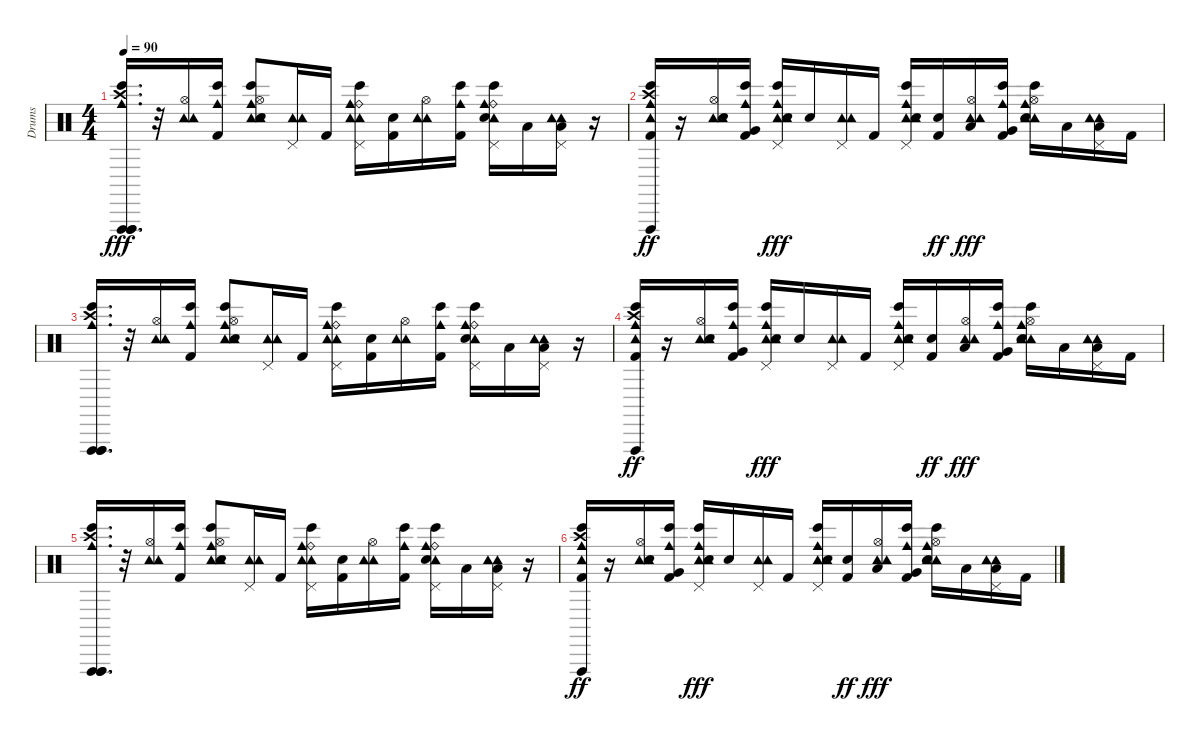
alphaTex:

\track ("Drums" "Drums") {instrument percussion}
\staff {score}
\articulation defaults
\ts (4 4)
\tempo 90
\clef neutral
\ks c
("Vibraslap (hit)" "Vibraslap (hit)" "Vibraslap (hit)" "Cowbell medium (hit)" "Bongo High (hit)" "Crash high (hit)").16{d dy fff} r.32 ("Tambourine (hit)" "Hi-Hat (open)" "Tambourine (hit)").16 ("Kick (hit) 2" "Bongo High (hit)" "Cowbell medium (hit)").16 ("Tambourine (hit)" "Hi-Hat (open)" "Cowbell medium (hit)" "Electric Snare (hit)" "Bongo High (hit)" "Tambourine (hit)").8 ("Tambourine (hit)" "Pedal Hi-Hat (hit)" "Tambourine (hit)").16 "Kick (hit) 2".16 ("Tambourine (hit)" "Pedal Hi-Hat (hit)" "Ride (bell)" "Cowbell medium (hit)" "Bongo High (hit)" "Tambourine (hit)").16 ("Kick (hit) 2" "Electric Snare (hit)").16 ("Tambourine (hit)" "Tambourine (hit)" "Hi-Hat (open)").16 ("Cowbell medium (hit)" "Kick (hit) 2" "Bongo High (hit)").16 ("Tambourine (hit)" "Pedal Hi-Hat (hit)" "Ride (bell)" "Cowbell medium (hit)" "Electric Snare (hit)" "Bongo High (hit)").16 "Low Tom (hit)".16 ("Tambourine (hit)" "Pedal Hi-Hat (hit)" "Tambourine (hit)" "Low Floor Tom (hit)").16 r.16 |
("Tambourine (hit)" "Vibraslap (hit)" "Cowbell medium (hit)" "Bongo High (hit)" "Kick (hit) 2" "Crash high (hit)").16{dy ff} r.16 ("Tambourine (hit)" "Hi-Hat (open)" "Tambourine (hit)" "Electric Snare (hit)").16 ("Kick (hit) 2" "Bongo High (hit)" "Cowbell medium (hit)" "Very Low Tom (hit)").16 ("Tambourine (hit)" "Pedal Hi-Hat (hit)" "Cowbell medium (hit)" "Electric Snare (hit)" "Bongo High (hit)" "Tambourine (hit)").16{dy fff} "Electric Snare (hit)".16 ("Tambourine (hit)" "Pedal Hi-Hat (hit)" "Tambourine (hit)").16 "Kick (hit) 2".16 ("Tambourine (hit)" "Pedal Hi-Hat (hit)" "Cowbell medium (hit)" "Bongo High (hit)" "Tambourine (hit)" "Electric Snare (hit)").16 ("Kick (hit) 2" "Electric Snare (hit)").16{dy ff} ("Tambourine (hit)" "Low Tom (hit)" "Tambourine (hit)" "Hi-Hat (open)").16{dy fff} ("Cowbell medium (hit)" "Kick (hit) 2" "Bongo High (hit)" "Very Low Tom (hit)").16 ("Tambourine (hit)" "Hi-Hat (open)" "Cowbell medium (hit)" "Electric Snare (hit)" "Bongo High (hit)" "Tambourine (hit)").16 "Low Tom (hit)".16 ("Tambourine (hit)" "Pedal Hi-Hat (hit)" "Tambourine (hit)" "Low Floor Tom (hit)").16 "Kick (hit) 2".16 |
("Vibraslap (hit)" "Vibraslap (hit)" "Vibraslap (hit)" "Cowbell medium (hit)" "Bongo High (hit)" "Crash high (hit)").16{d volume 0} r.32 ("Tambourine (hit)" "Hi-Hat (open)" "Tambourine (hit)").16 ("Kick (hit) 2" "Bongo High (hit)" "Cowbell medium (hit)").16 ("Tambourine (hit)" "Hi-Hat (open)" "Cowbell medium (hit)" "Electric Snare (hit)" "Bongo High (hit)" "Tambourine (hit)").8 ("Tambourine (hit)" "Pedal Hi-Hat (hit)" "Tambourine (hit)").16 "Kick (hit) 2".16 ("Tambourine (hit)" "Pedal Hi-Hat (hit)" "Ride (bell)" "Cowbell medium (hit)" "Bongo High (hit)" "Tambourine (hit)").16 ("Kick (hit) 2" "Electric Snare (hit)").16 ("Tambourine (hit)" "Tambourine (hit)" "Hi-Hat (open)").16 ("Cowbell medium (hit)" "Kick (hit) 2" "Bongo High (hit)").16 ("Tambourine (hit)" "Pedal Hi-Hat (hit)" "Ride (bell)" "Cowbell medium (hit)" "Electric Snare (hit)" "Bongo High (hit)").16 "Low Tom (hit)".16 ("Tambourine (hit)" "Pedal Hi-Hat (hit)" "Tambourine (hit)" "Low Floor Tom (hit)").16 r.16 |
("Tambourine (hit)" "Vibraslap (hit)" "Cowbell medium (hit)" "Bongo High (hit)" "Kick (hit) 2" "Crash high (hit)").16{dy ff} r.16 ("Tambourine (hit)" "Hi-Hat (open)" "Tambourine (hit)" "Electric Snare (hit)").16 ("Kick (hit) 2" "Bongo High (hit)" "Cowbell medium (hit)" "Very Low Tom (hit)").16 ("Tambourine (hit)" "Pedal Hi-Hat (hit)" "Cowbell medium (hit)" "Electric Snare (hit)" "Bongo High (hit)" "Tambourine (hit)").16{dy fff} "Electric Snare (hit)".16 ("Tambourine (hit)" "Pedal Hi-Hat (hit)" "Tambourine (hit)").16 "Kick (hit) 2".16 ("Tambourine (hit)" "Pedal Hi-Hat (hit)" "Cowbell medium (hit)" "Bongo High (hit)" "Tambourine (hit)" "Electric Snare (hit)").16 ("Kick (hit) 2" "Electric Snare (hit)").16{dy ff} ("Tambourine (hit)" "Low Tom (hit)" "Tambourine (hit)" "Hi-Hat (open)").16{dy fff} ("Cowbell medium (hit)" "Kick (hit) 2" "Bongo High (hit)" "Very Low Tom (hit)").16 ("Tambourine (hit)" "Hi-Hat (open)" "Cowbell medium (hit)" "Electric Snare (hit)" "Bongo High (hit)" "Tambourine (hit)").16 "Low Tom (hit)".16 ("Tambourine (hit)" "Pedal Hi-Hat (hit)" "Tambourine (hit)" "Low Floor Tom (hit)").16 "Kick (hit) 2".16 |
("Vibraslap (hit)" "Vibraslap (hit)" "Vibraslap (hit)" "Cowbell medium (hit)" "Bongo High (hit)" "Crash high (hit)").16{d} r.32 ("Tambourine (hit)" "Hi-Hat (open)" "Tambourine (hit)").16 ("Kick (hit) 2" "Bongo High (hit)" "Cowbell medium (hit)").16 ("Tambourine (hit)" "Hi-Hat (open)" "Cowbell medium (hit)" "Electric Snare (hit)" "Bongo High (hit)" "Tambourine (hit)").8 ("Tambourine (hit)" "Pedal Hi-Hat (hit)" "Tambourine (hit)").16 "Kick (hit) 2".16 ("Tambourine (hit)" "Pedal Hi-Hat (hit)" "Ride (bell)" "Cowbell medium (hit)" "Bongo High (hit)" "Tambourine (hit)").16 ("Kick (hit) 2" "Electric Snare (hit)").16 ("Tambourine (hit)" "Tambourine (hit)" "Hi-Hat (open)").16 ("Cowbell medium (hit)" "Kick (hit) 2" "Bongo High (hit)").16 ("Tambourine (hit)" "Pedal Hi-Hat (hit)" "Ride (bell)" "Cowbell medium (hit)" "Electric Snare (hit)" "Bongo High (hit)").16 "Low Tom (hit)".16 ("Tambourine (hit)" "Pedal Hi-Hat (hit)" "Tambourine (hit)" "Low Floor Tom (hit)").16 r.16 |
("Tambourine (hit)" "Vibraslap (hit)" "Cowbell medium (hit)" "Bongo High (hit)" "Kick (hit) 2" "Crash high (hit)").16{dy ff} r.16 ("Tambourine (hit)" "Hi-Hat (open)" "Tambourine (hit)" "Electric Snare (hit)").16 ("Kick (hit) 2" "Bongo High (hit)" "Cowbell medium (hit)" "Very Low Tom (hit)").16 ("Tambourine (hit)" "Pedal Hi-Hat (hit)" "Cowbell medium (hit)" "Electric Snare (hit)" "Bongo High (hit)" "Tambourine (hit)").16{dy fff} "Electric Snare (hit)".16 ("Tambourine (hit)" "Pedal Hi-Hat (hit)" "Tambourine (hit)").16 "Kick (hit) 2".16 ("Tambourine (hit)" "Pedal Hi-Hat (hit)" "Cowbell medium (hit)" "Bongo High (hit)" "Tambourine (hit)" "Electric Snare (hit)").16 ("Kick (hit) 2" "Electric Snare (hit)").16{dy ff} ("Tambourine (hit)" "Low Tom (hit)" "Tambourine (hit)" "Hi-Hat (open)").16{dy fff} ("Cowbell medium (hit)" "Kick (hit) 2" "Bongo High (hit)" "Very Low Tom (hit)").16 ("Tambourine (hit)" "Hi-Hat (open)" "Cowbell medium (hit)" "Electric Snare (hit)" "Bongo High (hit)" "Tambourine (hit)").16 "Low Tom (hit)".16 ("Tambourine (hit)" "Pedal Hi-Hat (hit)" "Tambourine (hit)" "Low Floor Tom (hit)").16 "Kick (hit) 2".16
